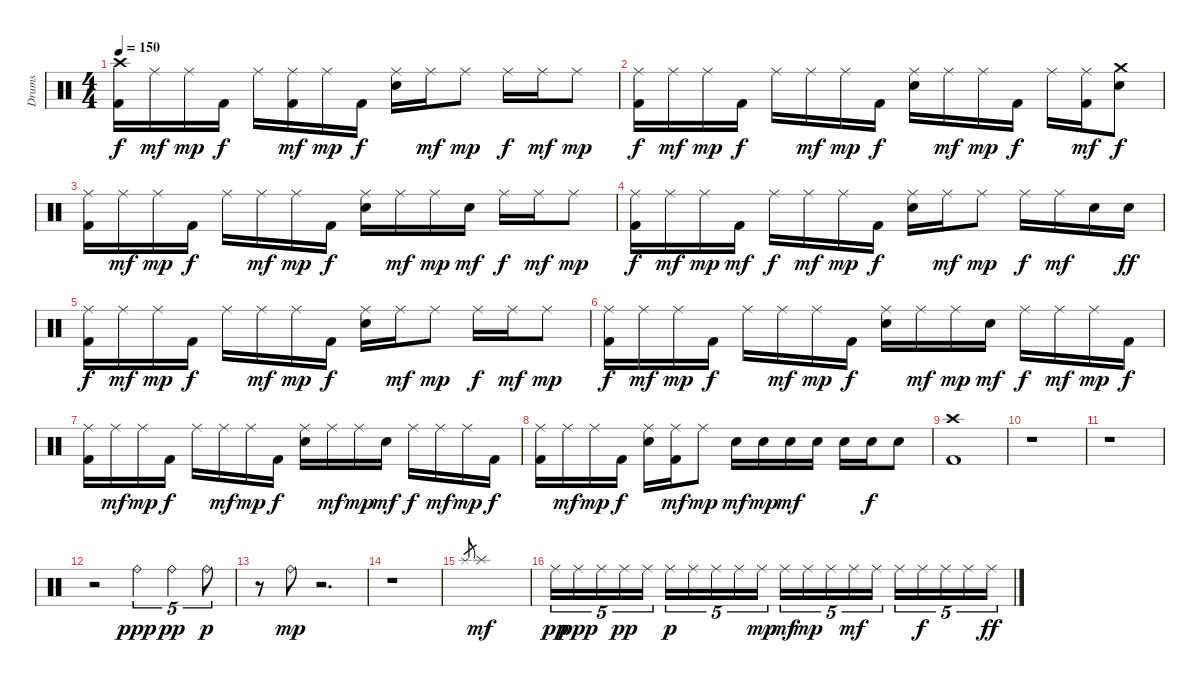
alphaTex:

\track ("Drums" "Drums") {instrument percussion}
\staff {score}
\articulation defaults
\ts (4 4)
\tempo 150
\clef neutral
\ks c
("Crash high (hit)" "Kick (hit) 2").16{dy f} "Ride (middle)".16{dy mf} "Ride (middle)".16{dy mp} "Kick (hit) 2".16{dy f} "Ride (middle)".16 ("Ride (middle)" "Kick (hit) 2").16{dy mf} "Ride (middle)".16{dy mp} "Kick (hit) 2".16{dy f} ("Ride (middle)" "Snare (hit) 2").16 "Ride (middle)".16{dy mf} "Ride (middle)".8{dy mp} "Ride (middle)".16{dy f} "Ride (middle)".16{dy mf} "Ride (middle)".8{dy mp} |
("Ride (middle)" "Kick (hit) 2").16{dy f} "Ride (middle)".16{dy mf} "Ride (middle)".16{dy mp} "Kick (hit) 2".16{dy f} "Ride (middle)".16 "Ride (middle)".16{dy mf} "Ride (middle)".16{dy mp} "Kick (hit) 2".16{dy f} ("Ride (middle)" "Snare (hit) 2").16 "Ride (middle)".16{dy mf} "Ride (middle)".16{dy mp} "Kick (hit) 2".16{dy f} "Ride (middle)".16 ("Ride (middle)" "Kick (hit) 2").16{dy mf} ("Crash medium (hit)" "Snare (hit) 2").8{dy f} |
("Ride (middle)" "Kick (hit) 2").16 "Ride (middle)".16{dy mf} "Ride (middle)".16{dy mp} "Kick (hit) 2".16{dy f} "Ride (middle)".16 "Ride (middle)".16{dy mf} "Ride (middle)".16{dy mp} "Kick (hit) 2".16{dy f} ("Ride (middle)" "Snare (hit) 2").16 "Ride (middle)".16{dy mf} "Ride (middle)".16{dy mp} "Snare (hit) 2".16{dy mf} "Ride (middle)".16{dy f} "Ride (middle)".16{dy mf} "Ride (middle)".8{dy mp} |
("Ride (middle)" "Kick (hit) 2").16{dy f} "Ride (middle)".16{dy mf} "Ride (middle)".16{dy mp} "Kick (hit) 2".16{dy mf} "Ride (middle)".16{dy f} "Ride (middle)".16{dy mf} "Ride (middle)".16{dy mp} "Kick (hit) 2".16{dy f} ("Ride (middle)" "Snare (hit) 2").16 "Ride (middle)".16{dy mf} "Ride (middle)".8{dy mp} "Ride (middle)".16{dy f} "Ride (middle)".16{dy mf} "Snare (hit) 2".16 "Snare (hit) 2".16{dy ff} |
("Ride (middle)" "Kick (hit) 2").16{dy f} "Ride (middle)".16{dy mf} "Ride (middle)".16{dy mp} "Kick (hit) 2".16{dy f} "Ride (middle)".16 "Ride (middle)".16{dy mf} "Ride (middle)".16{dy mp} "Kick (hit) 2".16{dy f} ("Ride (middle)" "Snare (hit) 2").16 "Ride (middle)".16{dy mf} "Ride (middle)".8{dy mp} "Ride (middle)".16{dy f} "Ride (middle)".16{dy mf} "Ride (middle)".8{dy mp} |
("Ride (middle)" "Kick (hit) 2").16{dy f} "Ride (middle)".16{dy mf} "Ride (middle)".16{dy mp} "Kick (hit) 2".16{dy f} "Ride (middle)".16 "Ride (middle)".16{dy mf} "Ride (middle)".16{dy mp} "Kick (hit) 2".16{dy f} ("Ride (middle)" "Snare (hit) 2").16 "Ride (middle)".16{dy mf} "Ride (middle)".16{dy mp} "Snare (hit) 2".16{dy mf} "Ride (middle)".16{dy f} "Ride (middle)".16{dy mf} "Ride (middle)".16{dy mp} "Kick (hit) 2".16{dy f} |
("Ride (middle)" "Kick (hit) 2").16 "Ride (middle)".16{dy mf} "Ride (middle)".16{dy mp} "Kick (hit) 2".16{dy f} "Ride (middle)".16 "Ride (middle)".16{dy mf} "Ride (middle)".16{dy mp} "Kick (hit) 2".16{dy f} ("Ride (middle)" "Snare (hit) 2").16 "Ride (middle)".16{dy mf} "Ride (middle)".16{dy mp} "Snare (hit) 2".16{dy mf} "Ride (middle)".16{dy f} "Ride (middle)".16{dy mf} "Ride (middle)".16{dy mp} "Kick (hit) 2".16{dy f} |
("Ride (middle)" "Kick (hit) 2").16 "Ride (middle)".16{dy mf} "Ride (middle)".16{dy mp} "Kick (hit) 2".16{dy f} ("Ride (middle)" "Snare (hit) 2").16 ("Ride (middle)" "Kick (hit) 2").16{dy mf} "Ride (middle)".8{dy mp} "Snare (hit) 2".16{dy mf} "Snare (hit) 2".16{dy mp} "Snare (hit) 2".16{dy mf} "Snare (hit) 2".16 "Snare (hit) 2".16 "Snare (hit) 2".16{dy f} "Snare (hit) 2".8 |
("Crash high (hit)" "Kick (hit) 2").1 |
r.1 |
r.1 |
r.2 "Ride (bell)".4{tu (5 4) dy ppp} "Ride (bell)".4{tu (5 4) dy pp} "Ride (bell)".8{tu (5 4) dy p} |
r.8 "Ride (bell)".8{dy mp} r.2{d} |
r.1 |
"Splash (hit)".8{gr} "Splash (hit)".1{dy mf} |
"Ride (middle)".16{tu (5 4) dy pp} "Ride (middle)".16{tu (5 4) dy ppp} "Ride (middle)".16{tu (5 4)} "Ride (middle)".16{tu (5 4) dy pp} "Ride (middle)".16{tu (5 4)} "Ride (middle)".16{tu (5 4) dy p} "Ride (middle)".16{tu (5 4)} "Ride (middle)".16{tu (5 4)} "Ride (middle)".16{tu (5 4)} "Ride (middle)".16{tu (5 4) dy mp} "Ride (middle)".16{tu (5 4) dy mf} "Ride (middle)".16{tu (5 4) dy mp} "Ride (middle)".16{tu (5 4)} "Ride (middle)".16{tu (5 4) dy mf} "Ride (middle)".16{tu (5 4)} "Ride (middle)".16{tu (5 4)} "Ride (middle)".16{tu (5 4) dy f} "Ride (middle)".16{tu (5 4)} "Ride (middle)".16{tu (5 4)} "Ride (middle)".16{tu (5 4) dy ff}
